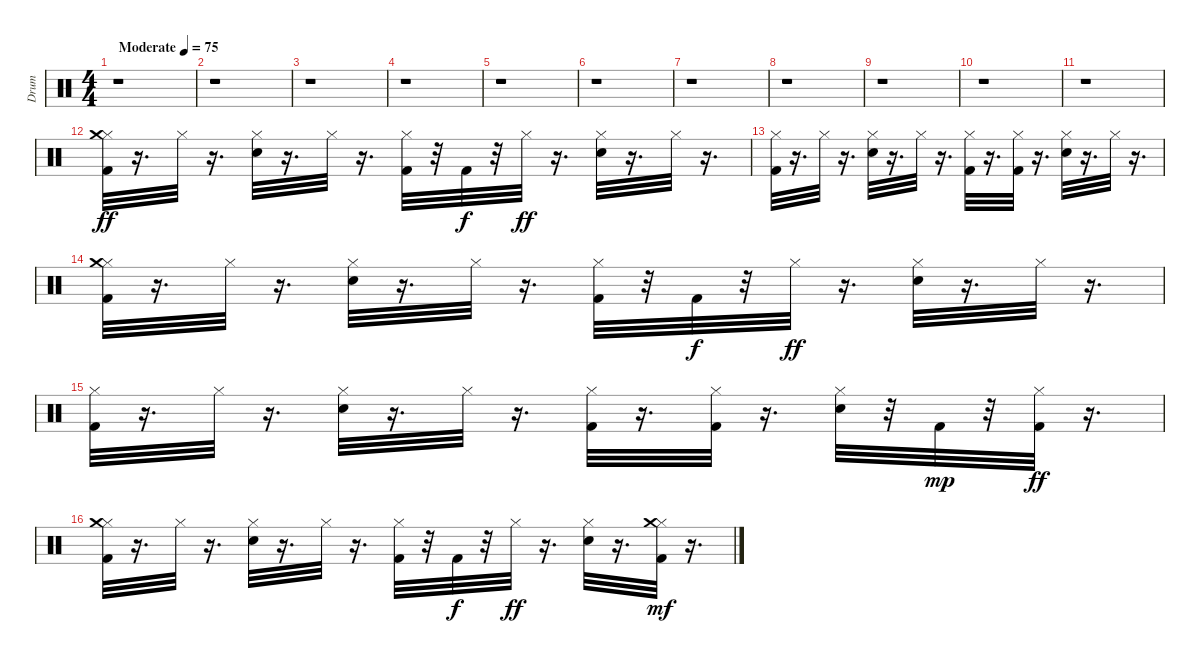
\track ("Drum" "Drum") {instrument percussion}
\staff {score}
\articulation defaults
\ts (4 4)
\tempo (75 "Moderate")
\clef neutral
\ks c
r.1{dy ff} |
r.1 |
r.1 |
r.1 |
r.1 |
r.1 |
r.1 |
r.1 |
r.1 |
r.1 |
r.1 |
("Kick (hit) 2" "Hi-Hat (closed)" "Crash medium (hit)").32 r.16{d} "Hi-Hat (closed)".32 r.16{d} ("Hi-Hat (closed)" "Snare (hit) 2").32 r.16{d} "Hi-Hat (closed)".32 r.16{d} ("Kick (hit) 2" "Hi-Hat (closed)").32 r.32 "Kick (hit) 2".32{dy f} r.32 "Hi-Hat (closed)".32{dy ff} r.16{d} ("Hi-Hat (closed)" "Snare (hit) 2").32 r.16{d} "Hi-Hat (closed)".32 r.16{d} |
("Kick (hit) 2" "Hi-Hat (closed)").32 r.16{d} "Hi-Hat (closed)".32 r.16{d} ("Hi-Hat (closed)" "Snare (hit) 2").32 r.16{d} "Hi-Hat (closed)".32 r.16{d} ("Kick (hit) 2" "Hi-Hat (closed)").32 r.16{d} ("Kick (hit) 2" "Hi-Hat (closed)").32 r.16{d} ("Hi-Hat (closed)" "Snare (hit) 2").32 r.16{d} "Hi-Hat (closed)".32 r.16{d} |
("Kick (hit) 2" "Hi-Hat (closed)" "Crash medium (hit)").32 r.16{d} "Hi-Hat (closed)".32 r.16{d} ("Hi-Hat (closed)" "Snare (hit) 2").32 r.16{d} "Hi-Hat (closed)".32 r.16{d} ("Kick (hit) 2" "Hi-Hat (closed)").32 r.32 "Kick (hit) 2".32{dy f} r.32 "Hi-Hat (closed)".32{dy ff} r.16{d} ("Hi-Hat (closed)" "Snare (hit) 2").32 r.16{d} "Hi-Hat (closed)".32 r.16{d} |
("Kick (hit) 2" "Hi-Hat (closed)").32 r.16{d} "Hi-Hat (closed)".32 r.16{d} ("Hi-Hat (closed)" "Snare (hit) 2").32 r.16{d} "Hi-Hat (closed)".32 r.16{d} ("Kick (hit) 2" "Hi-Hat (closed)").32 r.16{d} ("Kick (hit) 2" "Hi-Hat (closed)").32 r.16{d} ("Hi-Hat (closed)" "Snare (hit) 2").32 r.32 "Kick (hit) 2".32{dy mp} r.32 ("Kick (hit) 2" "Hi-Hat (closed)").32{dy ff} r.16{d} |
("Kick (hit) 2" "Hi-Hat (closed)" "Crash medium (hit)").32 r.16{d} "Hi-Hat (closed)".32 r.16{d} ("Hi-Hat (closed)" "Snare (hit) 2").32 r.16{d} "Hi-Hat (closed)".32 r.16{d} ("Kick (hit) 2" "Hi-Hat (closed)").32 r.32 "Kick (hit) 2".32{dy f} r.32 "Hi-Hat (closed)".32{dy ff} r.16{d} ("Hi-Hat (closed)" "Snare (hit) 2").32 r.16{d} ("Kick (hit) 2" "Hi-Hat (closed)" "Crash medium (hit)").32{dy mf} r.16{d}
